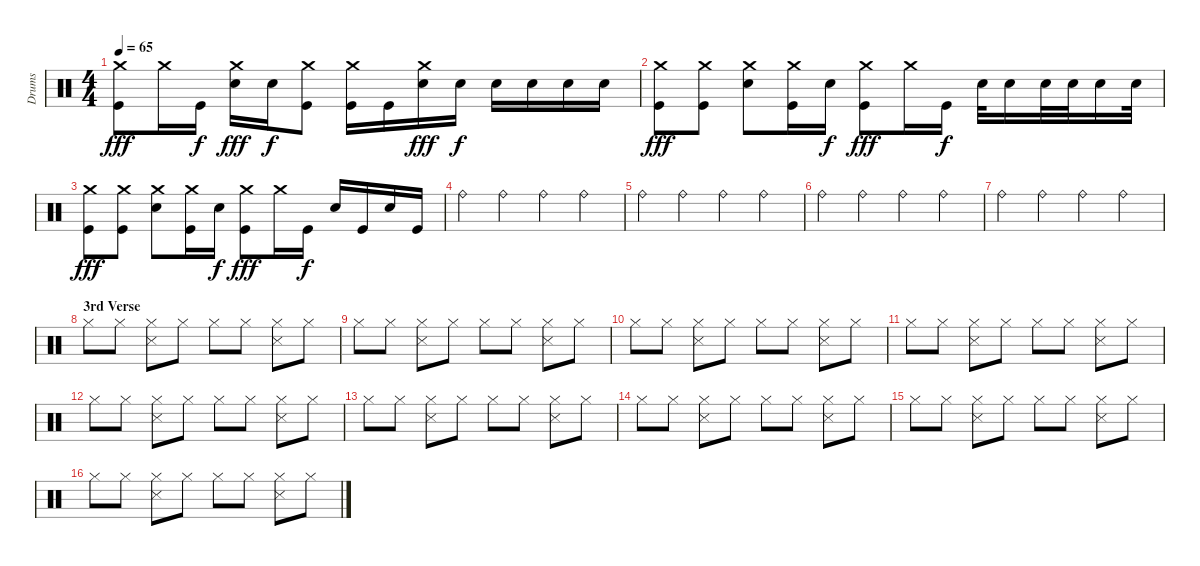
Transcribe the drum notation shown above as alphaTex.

\track ("Drums" "Drums") {instrument percussion}
\staff {score}
\articulation defaults
\ts (4 4)
\tempo 65
\clef neutral
\ks c
("Crash medium (hit)" "Kick (hit)").8{dy fff} "Crash medium (hit)".16 "Kick (hit)".16{dy f} ("Crash medium (hit)" "Electric Snare (hit)").16{dy fff} "Electric Snare (hit)".16{dy f} ("Crash medium (hit)" "Kick (hit)").8 ("Crash medium (hit)" "Kick (hit)").16 "Kick (hit)".16 ("Crash medium (hit)" "Electric Snare (hit)").16{dy fff} "Electric Snare (hit)".16{dy f} "Electric Snare (hit)".16 "Electric Snare (hit)".16 "Electric Snare (hit)".16 "Electric Snare (hit)".16 |
("Crash medium (hit)" "Kick (hit)").8{dy fff} ("Crash medium (hit)" "Kick (hit)").8 ("Crash medium (hit)" "Electric Snare (hit)").8 ("Crash medium (hit)" "Kick (hit)").16 "Electric Snare (hit)".16{dy f} ("Crash medium (hit)" "Kick (hit)").8{dy fff} "Crash medium (hit)".16 "Kick (hit)".16{dy f} "Electric Snare (hit)".32 "Electric Snare (hit)".16 "Electric Snare (hit)".32 "Electric Snare (hit)".32 "Electric Snare (hit)".16 "Electric Snare (hit)".32 |
("Crash medium (hit)" "Kick (hit)").8{dy fff} ("Crash medium (hit)" "Kick (hit)").8 ("Crash medium (hit)" "Electric Snare (hit)").8 ("Crash medium (hit)" "Kick (hit)").16 "Electric Snare (hit)".16{dy f} ("Crash medium (hit)" "Kick (hit)").8{dy fff} "Crash medium (hit)".16 "Kick (hit)".16{dy f} "Electric Snare (hit)".16 "Kick (hit)".16 "Electric Snare (hit)".16 "Kick (hit)".16 |
"Ride (bell)".4 "Ride (bell)".4 "Ride (bell)".4 "Ride (bell)".4 |
"Ride (bell)".4 "Ride (bell)".4 "Ride (bell)".4 "Ride (bell)".4 |
"Ride (bell)".4 "Ride (bell)".4 "Ride (bell)".4 "Ride (bell)".4 |
"Ride (bell)".4 "Ride (bell)".4 "Ride (bell)".4 "Ride (bell)".4 |
\section ("" "3rd Verse")
"Hi-Hat (closed)".8 "Hi-Hat (closed)".8 ("Hi-Hat (closed)" "Snare (side stick) 3").8 "Hi-Hat (closed)".8 "Hi-Hat (closed)".8 "Hi-Hat (closed)".8 ("Hi-Hat (closed)" "Snare (side stick) 3").8 "Hi-Hat (closed)".8 |
"Hi-Hat (closed)".8 "Hi-Hat (closed)".8 ("Hi-Hat (closed)" "Snare (side stick) 3").8 "Hi-Hat (closed)".8 "Hi-Hat (closed)".8 "Hi-Hat (closed)".8 ("Hi-Hat (closed)" "Snare (side stick) 3").8 "Hi-Hat (closed)".8 |
"Hi-Hat (closed)".8 "Hi-Hat (closed)".8 ("Hi-Hat (closed)" "Snare (side stick) 3").8 "Hi-Hat (closed)".8 "Hi-Hat (closed)".8 "Hi-Hat (closed)".8 ("Hi-Hat (closed)" "Snare (side stick) 3").8 "Hi-Hat (closed)".8 |
"Hi-Hat (closed)".8 "Hi-Hat (closed)".8 ("Hi-Hat (closed)" "Snare (side stick) 3").8 "Hi-Hat (closed)".8 "Hi-Hat (closed)".8 "Hi-Hat (closed)".8 ("Hi-Hat (closed)" "Snare (side stick) 3").8 "Hi-Hat (closed)".8 |
"Hi-Hat (closed)".8 "Hi-Hat (closed)".8 ("Hi-Hat (closed)" "Snare (side stick) 3").8 "Hi-Hat (closed)".8 "Hi-Hat (closed)".8 "Hi-Hat (closed)".8 ("Hi-Hat (closed)" "Snare (side stick) 3").8 "Hi-Hat (closed)".8 |
"Hi-Hat (closed)".8 "Hi-Hat (closed)".8 ("Hi-Hat (closed)" "Snare (side stick) 3").8 "Hi-Hat (closed)".8 "Hi-Hat (closed)".8 "Hi-Hat (closed)".8 ("Hi-Hat (closed)" "Snare (side stick) 3").8 "Hi-Hat (closed)".8 |
"Hi-Hat (closed)".8 "Hi-Hat (closed)".8 ("Hi-Hat (closed)" "Snare (side stick) 3").8 "Hi-Hat (closed)".8 "Hi-Hat (closed)".8 "Hi-Hat (closed)".8 ("Hi-Hat (closed)" "Snare (side stick) 3").8 "Hi-Hat (closed)".8 |
"Hi-Hat (closed)".8 "Hi-Hat (closed)".8 ("Hi-Hat (closed)" "Snare (side stick) 3").8 "Hi-Hat (closed)".8 "Hi-Hat (closed)".8 "Hi-Hat (closed)".8 ("Hi-Hat (closed)" "Snare (side stick) 3").8 "Hi-Hat (closed)".8 |
"Hi-Hat (closed)".8 "Hi-Hat (closed)".8 ("Hi-Hat (closed)" "Snare (side stick) 3").8 "Hi-Hat (closed)".8 "Hi-Hat (closed)".8 "Hi-Hat (closed)".8 ("Hi-Hat (closed)" "Snare (side stick) 3").8 "Hi-Hat (closed)".8
